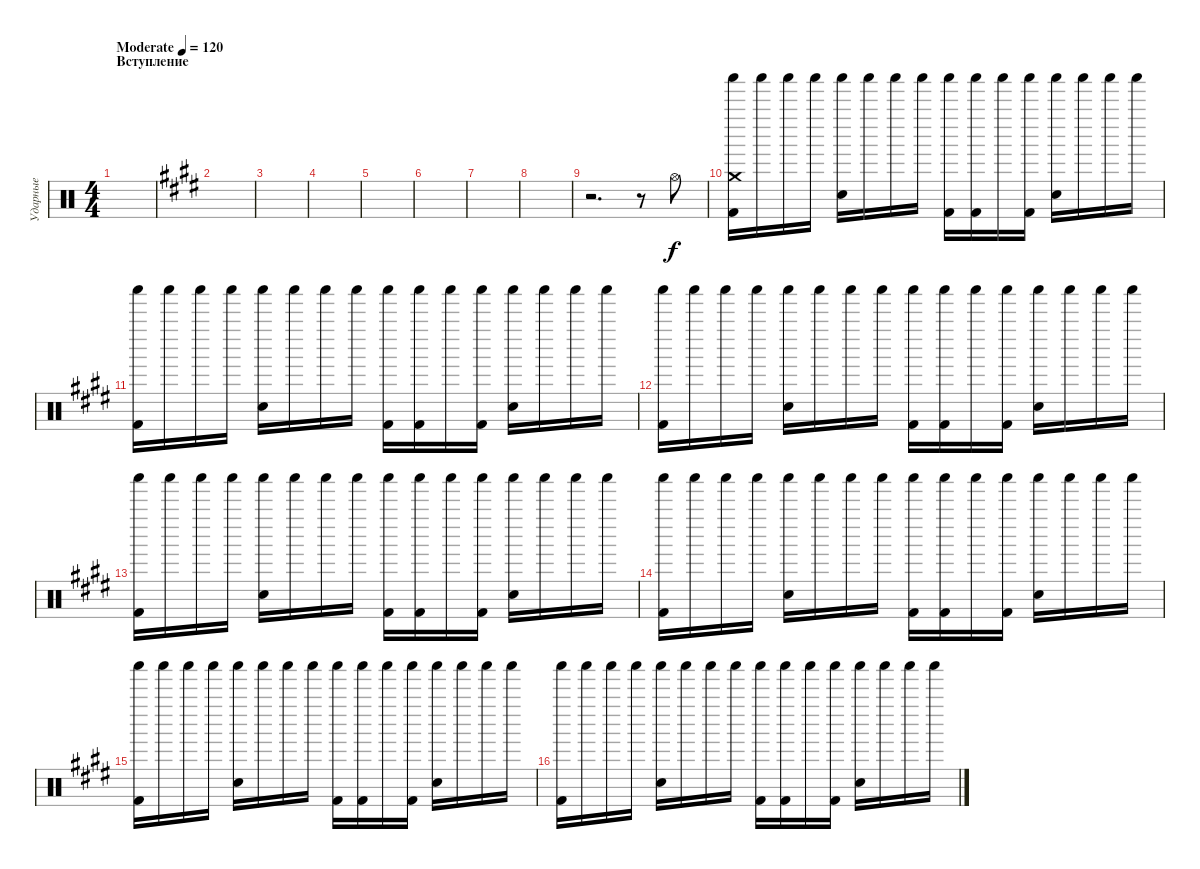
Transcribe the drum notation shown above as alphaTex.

\track ("Ударные" "Ударные") {instrument percussion}
\staff {score}
\articulation defaults
\ts (4 4)
\section ("" "Вступление")
\tempo (120 "Moderate")
\clef neutral
\ks c
|
\ks e
|
|
|
|
|
|
|
r.2{d} r.8 "Hi-Hat (open)".8 |
("Crash medium (hit)" "Shaker (hit)" "Kick (hit) 2").16 "Shaker (hit)".16 "Shaker (hit)".16 "Shaker (hit)".16 ("Shaker (hit)" "Snare (hit) 2").16 "Shaker (hit)".16 "Shaker (hit)".16 "Shaker (hit)".16 ("Shaker (hit)" "Kick (hit) 2").16 ("Shaker (hit)" "Kick (hit) 2").16 "Shaker (hit)".16 ("Shaker (hit)" "Kick (hit) 2").16 ("Shaker (hit)" "Snare (hit) 2").16 "Shaker (hit)".16 "Shaker (hit)".16 "Shaker (hit)".16 |
("Shaker (hit)" "Kick (hit) 2").16 "Shaker (hit)".16 "Shaker (hit)".16 "Shaker (hit)".16 ("Shaker (hit)" "Snare (hit) 2").16 "Shaker (hit)".16 "Shaker (hit)".16 "Shaker (hit)".16 ("Shaker (hit)" "Kick (hit) 2").16 ("Shaker (hit)" "Kick (hit) 2").16 "Shaker (hit)".16 ("Shaker (hit)" "Kick (hit) 2").16 ("Shaker (hit)" "Snare (hit) 2").16 "Shaker (hit)".16 "Shaker (hit)".16 "Shaker (hit)".16 |
("Shaker (hit)" "Kick (hit) 2").16 "Shaker (hit)".16 "Shaker (hit)".16 "Shaker (hit)".16 ("Shaker (hit)" "Snare (hit) 2").16 "Shaker (hit)".16 "Shaker (hit)".16 "Shaker (hit)".16 ("Shaker (hit)" "Kick (hit) 2").16 ("Shaker (hit)" "Kick (hit) 2").16 "Shaker (hit)".16 ("Shaker (hit)" "Kick (hit) 2").16 ("Shaker (hit)" "Snare (hit) 2").16 "Shaker (hit)".16 "Shaker (hit)".16 "Shaker (hit)".16 |
("Shaker (hit)" "Kick (hit) 2").16 "Shaker (hit)".16 "Shaker (hit)".16 "Shaker (hit)".16 ("Shaker (hit)" "Snare (hit) 2").16 "Shaker (hit)".16 "Shaker (hit)".16 "Shaker (hit)".16 ("Shaker (hit)" "Kick (hit) 2").16 ("Shaker (hit)" "Kick (hit) 2").16 "Shaker (hit)".16 ("Shaker (hit)" "Kick (hit) 2").16 ("Shaker (hit)" "Snare (hit) 2").16 "Shaker (hit)".16 "Shaker (hit)".16 "Shaker (hit)".16 |
("Shaker (hit)" "Kick (hit) 2").16 "Shaker (hit)".16 "Shaker (hit)".16 "Shaker (hit)".16 ("Shaker (hit)" "Snare (hit) 2").16 "Shaker (hit)".16 "Shaker (hit)".16 "Shaker (hit)".16 ("Shaker (hit)" "Kick (hit) 2").16 ("Shaker (hit)" "Kick (hit) 2").16 "Shaker (hit)".16 ("Shaker (hit)" "Kick (hit) 2").16 ("Shaker (hit)" "Snare (hit) 2").16 "Shaker (hit)".16 "Shaker (hit)".16 "Shaker (hit)".16 |
("Shaker (hit)" "Kick (hit) 2").16 "Shaker (hit)".16 "Shaker (hit)".16 "Shaker (hit)".16 ("Shaker (hit)" "Snare (hit) 2").16 "Shaker (hit)".16 "Shaker (hit)".16 "Shaker (hit)".16 ("Shaker (hit)" "Kick (hit) 2").16 ("Shaker (hit)" "Kick (hit) 2").16 "Shaker (hit)".16 ("Shaker (hit)" "Kick (hit) 2").16 ("Shaker (hit)" "Snare (hit) 2").16 "Shaker (hit)".16 "Shaker (hit)".16 "Shaker (hit)".16 |
("Shaker (hit)" "Kick (hit) 2").16 "Shaker (hit)".16 "Shaker (hit)".16 "Shaker (hit)".16 ("Shaker (hit)" "Snare (hit) 2").16 "Shaker (hit)".16 "Shaker (hit)".16 "Shaker (hit)".16 ("Shaker (hit)" "Kick (hit) 2").16 ("Shaker (hit)" "Kick (hit) 2").16 "Shaker (hit)".16 ("Shaker (hit)" "Kick (hit) 2").16 ("Shaker (hit)" "Snare (hit) 2").16 "Shaker (hit)".16 "Shaker (hit)".16 "Shaker (hit)".16
